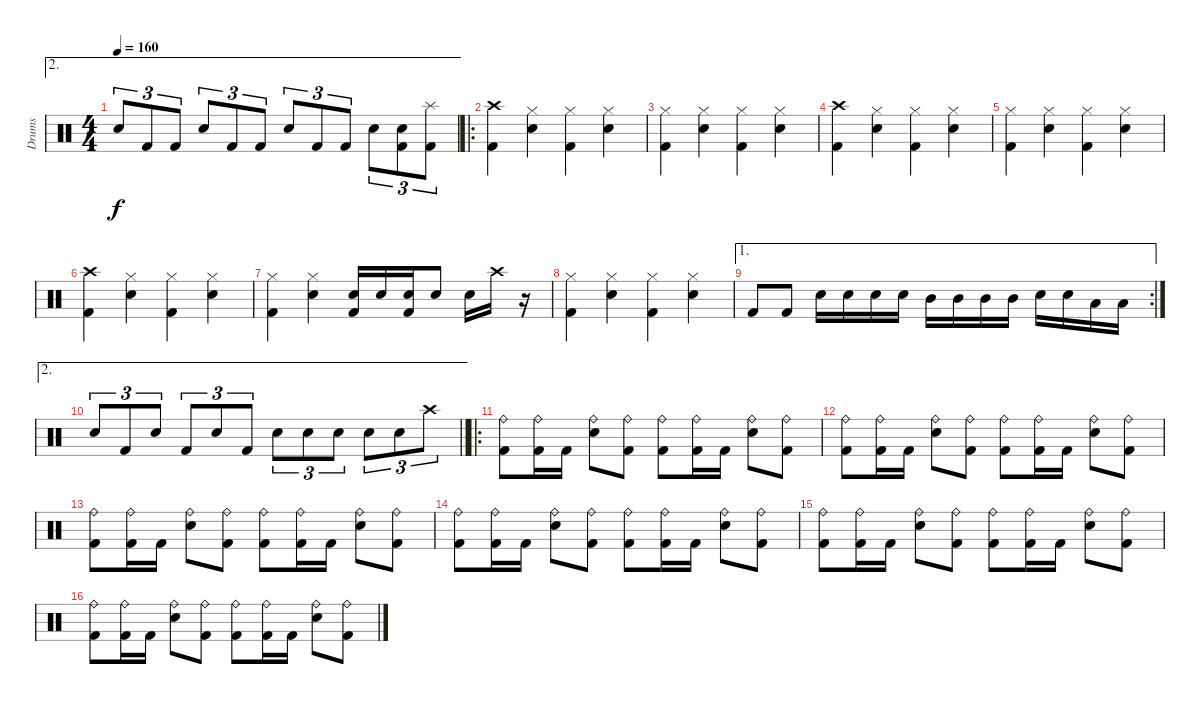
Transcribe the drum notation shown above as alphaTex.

\track ("Drums" "Drums") {instrument percussion}
\staff {score}
\articulation defaults
\ae 2
\ts (4 4)
\tempo 160
\clef neutral
\ks c "Snare (hit) 2".8{tu (3 2) dy f} "Kick (hit) 2".8{tu (3 2)} "Kick (hit) 2".8{tu (3 2)} "Snare (hit) 2".8{tu (3 2)} "Kick (hit) 2".8{tu (3 2)} "Kick (hit) 2".8{tu (3 2)} "Snare (hit) 2".8{tu (3 2)} "Kick (hit) 2".8{tu (3 2)} "Kick (hit) 2".8{tu (3 2)} "Snare (hit) 2".8{tu (3 2)}
("Snare (hit) 2" "Kick (hit) 2").8{tu (3 2)} ("Splash (hit)" "Kick (hit) 2").8{tu (3 2)} |
\ro
("Crash high (hit)" "Kick (hit) 2").4 ("Hi-Hat (closed)" "Snare (hit) 2").4 ("Hi-Hat (closed)" "Kick (hit) 2").4 ("Hi-Hat (closed)" "Snare (hit) 2").4 |
("Hi-Hat (closed)" "Kick (hit) 2").4 ("Hi-Hat (closed)" "Snare (hit) 2").4 ("Hi-Hat (closed)" "Kick (hit) 2").4 ("Hi-Hat (closed)" "Snare (hit) 2").4 |
("Crash high (hit)" "Kick (hit) 2").4 ("Hi-Hat (closed)" "Snare (hit) 2").4 ("Hi-Hat (closed)" "Kick (hit) 2").4 ("Hi-Hat (closed)" "Snare (hit) 2").4 |
("Hi-Hat (closed)" "Kick (hit) 2").4 ("Hi-Hat (closed)" "Snare (hit) 2").4 ("Hi-Hat (closed)" "Kick (hit) 2").4 ("Hi-Hat (closed)" "Snare (hit) 2").4 |
("Crash high (hit)" "Kick (hit) 2").4 ("Hi-Hat (closed)" "Snare (hit) 2").4 ("Hi-Hat (closed)" "Kick (hit) 2").4 ("Hi-Hat (closed)" "Snare (hit) 2").4 |
("Hi-Hat (closed)" "Kick (hit) 2").4 ("Hi-Hat (closed)" "Snare (hit) 2").4 ("Snare (hit) 2" "Kick (hit) 2").16 "Snare (hit) 2".16 ("Snare (hit) 2" "Kick (hit) 2").16 "Snare (hit) 2".8 "Snare (hit) 2".16 "Crash high (hit)".16 r.16 |
("Hi-Hat (closed)" "Kick (hit) 2").4 ("Hi-Hat (closed)" "Snare (hit) 2").4 ("Hi-Hat (closed)" "Kick (hit) 2").4 ("Hi-Hat (closed)" "Snare (hit) 2").4 |
\ae 1
\rc 2 "Kick (hit) 2".8 "Kick (hit) 2".8 "Snare (hit) 2".16 "Snare (hit) 2".16 "Snare (hit) 2".16 "Snare (hit) 2".16 "Mid Tom (hit)".16 "Mid Tom (hit)".16 "Mid Tom (hit)".16 "Mid Tom (hit)".16 "Snare (hit) 2".16 "Snare (hit) 2".16 "Low Tom (hit)".16 "Low Tom (hit)".16
|
\ae 2
\barLineRight lightlight "Snare (hit) 2".8{tu (3 2)} "Kick (hit) 2".8{tu (3 2)} "Snare (hit) 2".8{tu (3 2)} "Kick (hit) 2".8{tu (3 2)} "Snare (hit) 2".8{tu (3 2)} "Kick (hit) 2".8{tu (3 2)} "Snare (hit) 2".8{tu (3 2)} "Snare (hit) 2".8{tu (3 2)} "Snare (hit) 2".8{tu (3 2)} "Snare (hit) 2".8{tu (3 2)} "Snare (hit) 2".8{tu (3 2)} "Crash high (hit)".8{tu (3 2)}
|
\ro
("Ride (bell)" "Kick (hit) 2").8 ("Ride (bell)" "Kick (hit) 2").16 "Kick (hit) 2".16 ("Ride (bell)" "Snare (hit) 2").8 ("Ride (bell)" "Kick (hit) 2").8 ("Ride (bell)" "Kick (hit) 2").8 ("Ride (bell)" "Kick (hit) 2").16 "Kick (hit) 2".16 ("Ride (bell)" "Snare (hit) 2").8 ("Ride (bell)" "Kick (hit) 2").8 |
("Ride (bell)" "Kick (hit) 2").8 ("Ride (bell)" "Kick (hit) 2").16 "Kick (hit) 2".16 ("Ride (bell)" "Snare (hit) 2").8 ("Ride (bell)" "Kick (hit) 2").8 ("Ride (bell)" "Kick (hit) 2").8 ("Ride (bell)" "Kick (hit) 2").16 "Kick (hit) 2".16 ("Ride (bell)" "Snare (hit) 2").8 ("Ride (bell)" "Kick (hit) 2").8 |
("Ride (bell)" "Kick (hit) 2").8 ("Ride (bell)" "Kick (hit) 2").16 "Kick (hit) 2".16 ("Ride (bell)" "Snare (hit) 2").8 ("Ride (bell)" "Kick (hit) 2").8 ("Ride (bell)" "Kick (hit) 2").8 ("Ride (bell)" "Kick (hit) 2").16 "Kick (hit) 2".16 ("Ride (bell)" "Snare (hit) 2").8 ("Ride (bell)" "Kick (hit) 2").8 |
("Ride (bell)" "Kick (hit) 2").8 ("Ride (bell)" "Kick (hit) 2").16 "Kick (hit) 2".16 ("Ride (bell)" "Snare (hit) 2").8 ("Ride (bell)" "Kick (hit) 2").8 ("Ride (bell)" "Kick (hit) 2").8 ("Ride (bell)" "Kick (hit) 2").16 "Kick (hit) 2".16 ("Ride (bell)" "Snare (hit) 2").8 ("Ride (bell)" "Kick (hit) 2").8 |
("Ride (bell)" "Kick (hit) 2").8 ("Ride (bell)" "Kick (hit) 2").16 "Kick (hit) 2".16 ("Ride (bell)" "Snare (hit) 2").8 ("Ride (bell)" "Kick (hit) 2").8 ("Ride (bell)" "Kick (hit) 2").8 ("Ride (bell)" "Kick (hit) 2").16 "Kick (hit) 2".16 ("Ride (bell)" "Snare (hit) 2").8 ("Ride (bell)" "Kick (hit) 2").8 |
("Ride (bell)" "Kick (hit) 2").8 ("Ride (bell)" "Kick (hit) 2").16 "Kick (hit) 2".16 ("Ride (bell)" "Snare (hit) 2").8 ("Ride (bell)" "Kick (hit) 2").8 ("Ride (bell)" "Kick (hit) 2").8 ("Ride (bell)" "Kick (hit) 2").16 "Kick (hit) 2".16 ("Ride (bell)" "Snare (hit) 2").8 ("Ride (bell)" "Kick (hit) 2").8
